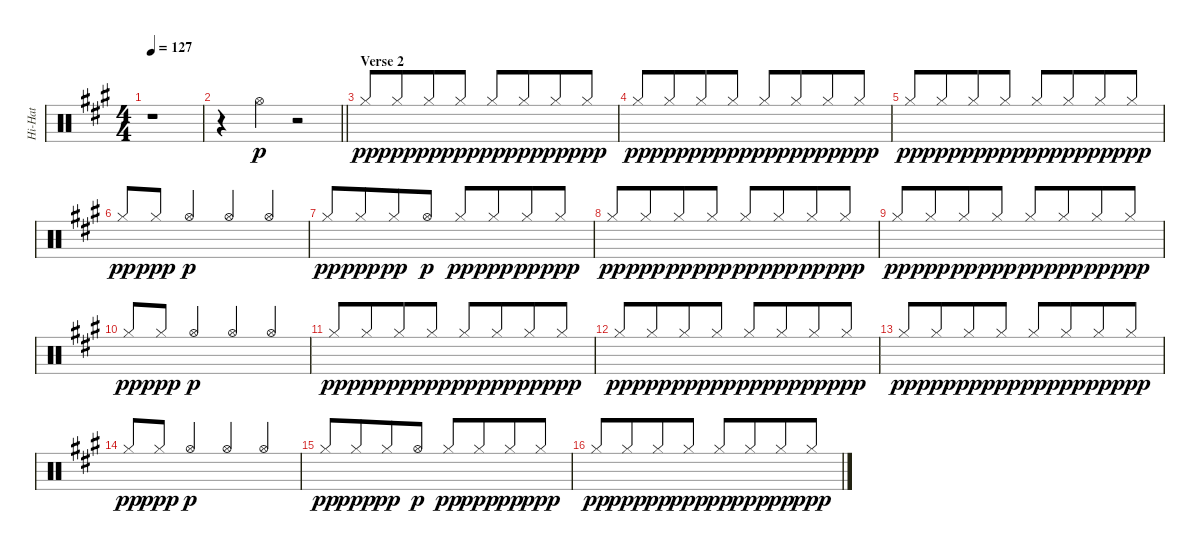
\track ("Hi-Hat" "Hi-Hat") {instrument percussion}
\staff {score}
\articulation defaults
\ts (4 4)
\tempo 127
\clef neutral
\ks a
r.1{dy p} |
\barLineRight lightlight
r.4 "Hi-Hat (open)".4{beam Down} r.2 |
\section ("" "Verse 2")
"Hi-Hat (closed)".8{dy pp beam Up} "Hi-Hat (closed)".8{dy ppp beam Up beam merge} "Hi-Hat (closed)".8{dy pp beam Up} "Hi-Hat (closed)".8{dy ppp beam Up} "Hi-Hat (closed)".8{dy pp beam Up} "Hi-Hat (closed)".8{dy ppp beam Up beam merge} "Hi-Hat (closed)".8{dy pp beam Up} "Hi-Hat (closed)".8{dy ppp beam Up} |
"Hi-Hat (closed)".8{dy pp beam Up} "Hi-Hat (closed)".8{dy ppp beam Up beam merge} "Hi-Hat (closed)".8{dy pp beam Up} "Hi-Hat (closed)".8{dy ppp beam Up} "Hi-Hat (closed)".8{dy pp beam Up} "Hi-Hat (closed)".8{dy ppp beam Up beam merge} "Hi-Hat (closed)".8{dy pp beam Up} "Hi-Hat (closed)".8{dy ppp beam Up} |
"Hi-Hat (closed)".8{dy pp beam Up} "Hi-Hat (closed)".8{dy ppp beam Up beam merge} "Hi-Hat (closed)".8{dy pp beam Up} "Hi-Hat (closed)".8{dy ppp beam Up} "Hi-Hat (closed)".8{dy pp beam Up} "Hi-Hat (closed)".8{dy ppp beam Up beam merge} "Hi-Hat (closed)".8{dy pp beam Up} "Hi-Hat (closed)".8{dy ppp beam Up} |
"Hi-Hat (closed)".8{dy pp beam Up} "Hi-Hat (closed)".8{dy ppp beam Up beam merge} "Hi-Hat (open)".4{dy p beam Up} "Hi-Hat (open)".4{beam Up} "Hi-Hat (open)".4{beam Up} |
"Hi-Hat (closed)".8{dy pp beam Up} "Hi-Hat (closed)".8{dy ppp beam Up beam merge} "Hi-Hat (closed)".8{dy pp beam Up} "Hi-Hat (open)".8{dy p beam Up} "Hi-Hat (closed)".8{dy pp beam Up} "Hi-Hat (closed)".8{dy ppp beam Up beam merge} "Hi-Hat (closed)".8{dy pp beam Up} "Hi-Hat (closed)".8{dy ppp beam Up} |
"Hi-Hat (closed)".8{dy pp beam Up} "Hi-Hat (closed)".8{dy ppp beam Up beam merge} "Hi-Hat (closed)".8{dy pp beam Up} "Hi-Hat (closed)".8{dy ppp beam Up} "Hi-Hat (closed)".8{dy pp beam Up} "Hi-Hat (closed)".8{dy ppp beam Up beam merge} "Hi-Hat (closed)".8{dy pp beam Up} "Hi-Hat (closed)".8{dy ppp beam Up} |
"Hi-Hat (closed)".8{dy pp beam Up} "Hi-Hat (closed)".8{dy ppp beam Up beam merge} "Hi-Hat (closed)".8{dy pp beam Up} "Hi-Hat (closed)".8{dy ppp beam Up} "Hi-Hat (closed)".8{dy pp beam Up} "Hi-Hat (closed)".8{dy ppp beam Up beam merge} "Hi-Hat (closed)".8{dy pp beam Up} "Hi-Hat (closed)".8{dy ppp beam Up} |
"Hi-Hat (closed)".8{dy pp beam Up} "Hi-Hat (closed)".8{dy ppp beam Up beam merge} "Hi-Hat (open)".4{dy p beam Up} "Hi-Hat (open)".4{beam Up} "Hi-Hat (open)".4{beam Up} |
"Hi-Hat (closed)".8{dy pp beam Up} "Hi-Hat (closed)".8{dy ppp beam Up beam merge} "Hi-Hat (closed)".8{dy pp beam Up} "Hi-Hat (closed)".8{dy ppp beam Up} "Hi-Hat (closed)".8{dy pp beam Up} "Hi-Hat (closed)".8{dy ppp beam Up beam merge} "Hi-Hat (closed)".8{dy pp beam Up} "Hi-Hat (closed)".8{dy ppp beam Up} |
"Hi-Hat (closed)".8{dy pp beam Up} "Hi-Hat (closed)".8{dy ppp beam Up beam merge} "Hi-Hat (closed)".8{dy pp beam Up} "Hi-Hat (closed)".8{dy ppp beam Up} "Hi-Hat (closed)".8{dy pp beam Up} "Hi-Hat (closed)".8{dy ppp beam Up beam merge} "Hi-Hat (closed)".8{dy pp beam Up} "Hi-Hat (closed)".8{dy ppp beam Up} |
"Hi-Hat (closed)".8{dy pp beam Up} "Hi-Hat (closed)".8{dy ppp beam Up beam merge} "Hi-Hat (closed)".8{dy pp beam Up} "Hi-Hat (closed)".8{dy ppp beam Up} "Hi-Hat (closed)".8{dy pp beam Up} "Hi-Hat (closed)".8{dy ppp beam Up beam merge} "Hi-Hat (closed)".8{dy pp beam Up} "Hi-Hat (closed)".8{dy ppp beam Up} |
"Hi-Hat (closed)".8{dy pp beam Up} "Hi-Hat (closed)".8{dy ppp beam Up beam merge} "Hi-Hat (open)".4{dy p beam Up} "Hi-Hat (open)".4{beam Up} "Hi-Hat (open)".4{beam Up} |
"Hi-Hat (closed)".8{dy pp beam Up} "Hi-Hat (closed)".8{dy ppp beam Up beam merge} "Hi-Hat (closed)".8{dy pp beam Up} "Hi-Hat (open)".8{dy p beam Up} "Hi-Hat (closed)".8{dy pp beam Up} "Hi-Hat (closed)".8{dy ppp beam Up beam merge} "Hi-Hat (closed)".8{dy pp beam Up} "Hi-Hat (closed)".8{dy ppp beam Up} |
"Hi-Hat (closed)".8{dy pp beam Up} "Hi-Hat (closed)".8{dy ppp beam Up beam merge} "Hi-Hat (closed)".8{dy pp beam Up} "Hi-Hat (closed)".8{dy ppp beam Up} "Hi-Hat (closed)".8{dy pp beam Up} "Hi-Hat (closed)".8{dy ppp beam Up beam merge} "Hi-Hat (closed)".8{dy pp beam Up} "Hi-Hat (closed)".8{dy ppp beam Up}
